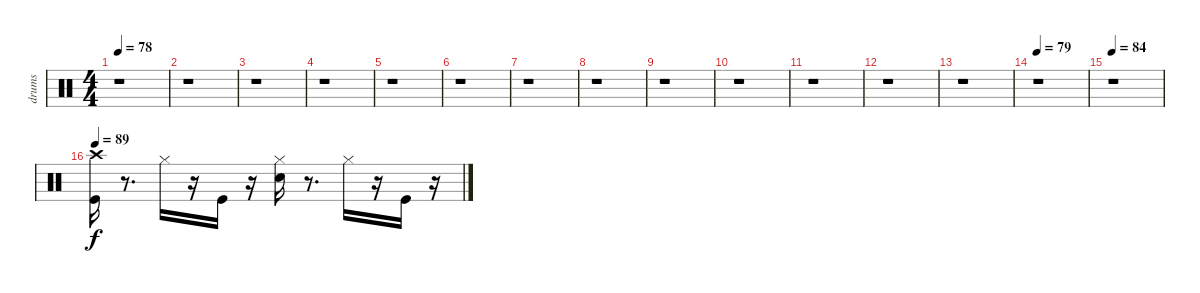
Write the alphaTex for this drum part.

\track ("drums" "drums") {instrument percussion}
\staff {score}
\articulation defaults
\ts (4 4)
\tempo 78
\clef neutral
\ks c
r.1{dy f} |
r.1 |
r.1 |
r.1 |
r.1 |
r.1 |
r.1 |
r.1 |
r.1 |
r.1 |
r.1 |
r.1 |
r.1 |
\tempo 79
r.1 |
\tempo 84
r.1 |
\tempo 89
("Crash high (hit)" "Kick (hit)").16 r.8{d} "Hi-Hat (closed)".16 r.16 "Kick (hit)".16 r.16 ("Hi-Hat (closed)" "Electric Snare (hit)").16 r.8{d} "Hi-Hat (closed)".16 r.16 "Kick (hit)".16 r.16
